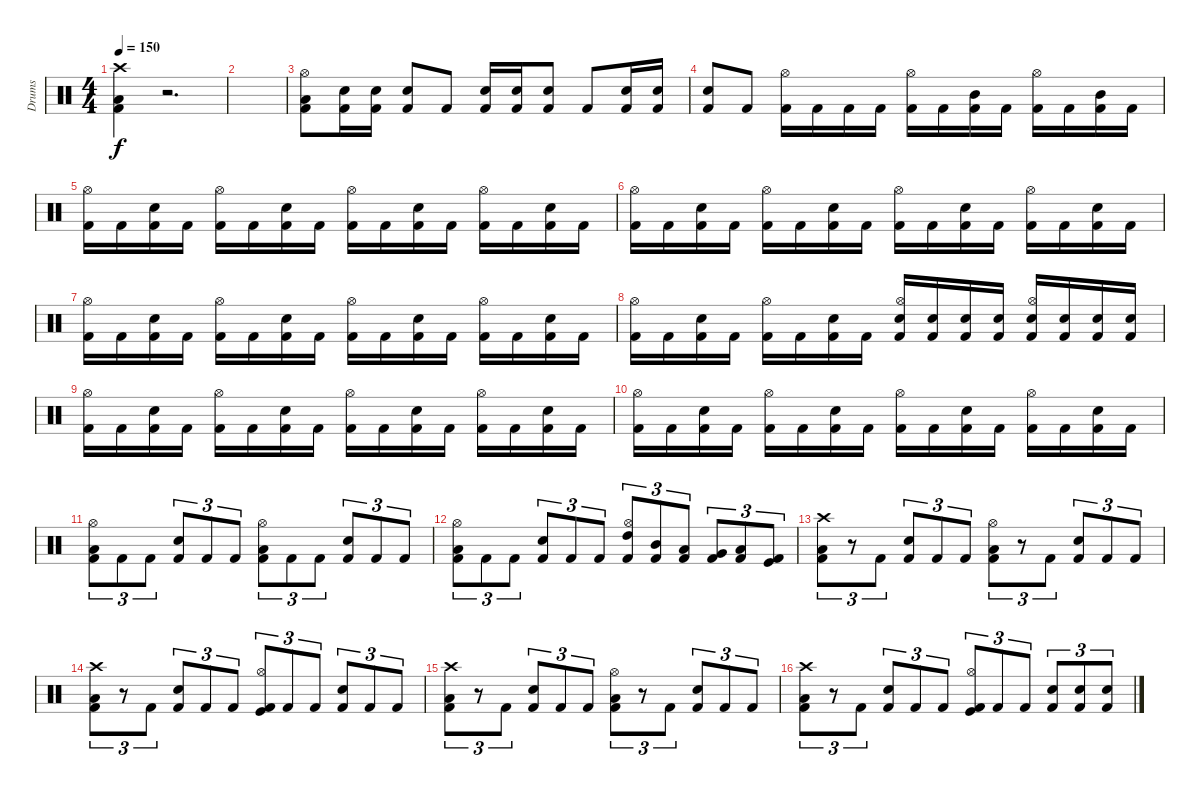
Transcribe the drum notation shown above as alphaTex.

\track ("Drums" "Drums") {instrument percussion}
\staff {score}
\articulation defaults
\ts (4 4)
\tempo 150
\clef neutral
\ks c
("Crash high (hit)" "Low Floor Tom (hit)" "Kick (hit) 2").4{dy f} r.2{d} |
|
("Hi-Hat (open)" "Low Floor Tom (hit)" "Kick (hit) 2").8 ("Snare (hit) 2" "Kick (hit) 2").16 ("Snare (hit) 2" "Kick (hit) 2").16 ("Snare (hit) 2" "Kick (hit) 2").8 "Kick (hit) 2".8 ("Snare (hit) 2" "Kick (hit) 2").16 ("Snare (hit) 2" "Kick (hit) 2").16 ("Snare (hit) 2" "Kick (hit) 2").8 "Kick (hit) 2".8 ("Snare (hit) 2" "Kick (hit) 2").16 ("Snare (hit) 2" "Kick (hit) 2").16 |
("Snare (hit) 2" "Kick (hit) 2").8 "Kick (hit) 2".8 ("Hi-Hat (open)" "Kick (hit) 2").16 "Kick (hit) 2".16 "Kick (hit) 2".16 "Kick (hit) 2".16 ("Hi-Hat (open)" "Kick (hit) 2").16 "Kick (hit) 2".16 ("Mid Tom (hit)" "Kick (hit) 2").16 "Kick (hit) 2".16 ("Hi-Hat (open)" "Kick (hit) 2").16 "Kick (hit) 2".16 ("Mid Tom (hit)" "Kick (hit) 2").16 "Kick (hit) 2".16 |
("Hi-Hat (open)" "Kick (hit) 2").16 "Kick (hit) 2".16 ("Electric Snare (hit)" "Kick (hit) 2").16 "Kick (hit) 2".16 ("Hi-Hat (open)" "Kick (hit) 2").16 "Kick (hit) 2".16 ("Electric Snare (hit)" "Kick (hit) 2").16 "Kick (hit) 2".16 ("Hi-Hat (open)" "Kick (hit) 2").16 "Kick (hit) 2".16 ("Electric Snare (hit)" "Kick (hit) 2").16 "Kick (hit) 2".16 ("Hi-Hat (open)" "Kick (hit) 2").16 "Kick (hit) 2".16 ("Electric Snare (hit)" "Kick (hit) 2").16 "Kick (hit) 2".16 |
("Hi-Hat (open)" "Kick (hit) 2").16 "Kick (hit) 2".16 ("Electric Snare (hit)" "Kick (hit) 2").16 "Kick (hit) 2".16 ("Hi-Hat (open)" "Kick (hit) 2").16 "Kick (hit) 2".16 ("Electric Snare (hit)" "Kick (hit) 2").16 "Kick (hit) 2".16 ("Hi-Hat (open)" "Kick (hit) 2").16 "Kick (hit) 2".16 ("Electric Snare (hit)" "Kick (hit) 2").16 "Kick (hit) 2".16 ("Hi-Hat (open)" "Kick (hit) 2").16 "Kick (hit) 2".16 ("Electric Snare (hit)" "Kick (hit) 2").16 "Kick (hit) 2".16 |
("Hi-Hat (open)" "Kick (hit) 2").16 "Kick (hit) 2".16 ("Electric Snare (hit)" "Kick (hit) 2").16 "Kick (hit) 2".16 ("Hi-Hat (open)" "Kick (hit) 2").16 "Kick (hit) 2".16 ("Electric Snare (hit)" "Kick (hit) 2").16 "Kick (hit) 2".16 ("Hi-Hat (open)" "Kick (hit) 2").16 "Kick (hit) 2".16 ("Electric Snare (hit)" "Kick (hit) 2").16 "Kick (hit) 2".16 ("Hi-Hat (open)" "Kick (hit) 2").16 "Kick (hit) 2".16 ("Electric Snare (hit)" "Kick (hit) 2").16 "Kick (hit) 2".16 |
("Hi-Hat (open)" "Kick (hit) 2").16 "Kick (hit) 2".16 ("Electric Snare (hit)" "Kick (hit) 2").16 "Kick (hit) 2".16 ("Hi-Hat (open)" "Kick (hit) 2").16 "Kick (hit) 2".16 ("Electric Snare (hit)" "Kick (hit) 2").16 "Kick (hit) 2".16 ("Hi-Hat (open)" "Snare (hit) 2" "Kick (hit) 2").16 ("Snare (hit) 2" "Kick (hit) 2").16 ("Snare (hit) 2" "Kick (hit) 2").16 ("Snare (hit) 2" "Kick (hit) 2").16 ("Hi-Hat (open)" "Snare (hit) 2" "Kick (hit) 2").16 ("Snare (hit) 2" "Kick (hit) 2").16 ("Snare (hit) 2" "Kick (hit) 2").16 ("Snare (hit) 2" "Kick (hit) 2").16 |
("Hi-Hat (open)" "Kick (hit) 2").16 "Kick (hit) 2".16 ("Electric Snare (hit)" "Kick (hit) 2").16 "Kick (hit) 2".16 ("Hi-Hat (open)" "Kick (hit) 2").16 "Kick (hit) 2".16 ("Electric Snare (hit)" "Kick (hit) 2").16 "Kick (hit) 2".16 ("Hi-Hat (open)" "Kick (hit) 2").16 "Kick (hit) 2".16 ("Electric Snare (hit)" "Kick (hit) 2").16 "Kick (hit) 2".16 ("Hi-Hat (open)" "Kick (hit) 2").16 "Kick (hit) 2".16 ("Electric Snare (hit)" "Kick (hit) 2").16 "Kick (hit) 2".16 |
("Hi-Hat (open)" "Kick (hit) 2").16 "Kick (hit) 2".16 ("Electric Snare (hit)" "Kick (hit) 2").16 "Kick (hit) 2".16 ("Hi-Hat (open)" "Kick (hit) 2").16 "Kick (hit) 2".16 ("Electric Snare (hit)" "Kick (hit) 2").16 "Kick (hit) 2".16 ("Hi-Hat (open)" "Kick (hit) 2").16 "Kick (hit) 2".16 ("Electric Snare (hit)" "Kick (hit) 2").16 "Kick (hit) 2".16 ("Hi-Hat (open)" "Kick (hit) 2").16 "Kick (hit) 2".16 ("Electric Snare (hit)" "Kick (hit) 2").16 "Kick (hit) 2".16 |
("Hi-Hat (open)" "Low Floor Tom (hit)" "Kick (hit) 2").8{tu (3 2)} "Kick (hit) 2".8{tu (3 2)} "Kick (hit) 2".8{tu (3 2)} ("Snare (hit) 2" "Kick (hit) 2").8{tu (3 2)} "Kick (hit) 2".8{tu (3 2)} "Kick (hit) 2".8{tu (3 2)} ("Hi-Hat (open)" "Low Floor Tom (hit)" "Kick (hit) 2").8{tu (3 2)} "Kick (hit) 2".8{tu (3 2)} "Kick (hit) 2".8{tu (3 2)} ("Snare (hit) 2" "Kick (hit) 2").8{tu (3 2)} "Kick (hit) 2".8{tu (3 2)} "Kick (hit) 2".8{tu (3 2)} |
("Hi-Hat (open)" "Low Floor Tom (hit)" "Kick (hit) 2").8{tu (3 2)} "Kick (hit) 2".8{tu (3 2)} "Kick (hit) 2".8{tu (3 2)} ("Snare (hit) 2" "Kick (hit) 2").8{tu (3 2)} "Kick (hit) 2".8{tu (3 2)} "Kick (hit) 2".8{tu (3 2)} ("Hi-Hat (open)" "High Tom (hit)" "Kick (hit) 2").8{tu (3 2)} ("Mid Tom (hit)" "Kick (hit) 2").8{tu (3 2)} ("Low Tom (hit)" "Kick (hit) 2").8{tu (3 2)} ("Very Low Tom (hit)" "Kick (hit) 2").8{tu (3 2)} ("Low Floor Tom (hit)" "Kick (hit) 2").8{tu (3 2)} ("Kick (hit)" "Kick (hit) 2").8{tu (3 2)} |
("Crash high (hit)" "Low Floor Tom (hit)" "Kick (hit) 2").8{tu (3 2)} r.8{tu (3 2)} "Kick (hit) 2".8{tu (3 2)} ("Snare (hit) 2" "Kick (hit) 2").8{tu (3 2)} "Kick (hit) 2".8{tu (3 2)} "Kick (hit) 2".8{tu (3 2)} ("Hi-Hat (open)" "Low Floor Tom (hit)" "Kick (hit) 2").8{tu (3 2)} r.8{tu (3 2)} "Kick (hit) 2".8{tu (3 2)} ("Snare (hit) 2" "Kick (hit) 2").8{tu (3 2)} "Kick (hit) 2".8{tu (3 2)} "Kick (hit) 2".8{tu (3 2)} |
("Crash high (hit)" "Low Floor Tom (hit)" "Kick (hit) 2").8{tu (3 2)} r.8{tu (3 2)} "Kick (hit) 2".8{tu (3 2)} ("Snare (hit) 2" "Kick (hit) 2").8{tu (3 2)} "Kick (hit) 2".8{tu (3 2)} "Kick (hit) 2".8{tu (3 2)} ("Hi-Hat (open)" "Kick (hit)" "Kick (hit) 2").8{tu (3 2)} "Kick (hit) 2".8{tu (3 2)} "Kick (hit) 2".8{tu (3 2)} ("Snare (hit) 2" "Kick (hit) 2").8{tu (3 2)} "Kick (hit) 2".8{tu (3 2)} "Kick (hit) 2".8{tu (3 2)} |
("Crash high (hit)" "Low Floor Tom (hit)" "Kick (hit) 2").8{tu (3 2)} r.8{tu (3 2)} "Kick (hit) 2".8{tu (3 2)} ("Snare (hit) 2" "Kick (hit) 2").8{tu (3 2)} "Kick (hit) 2".8{tu (3 2)} "Kick (hit) 2".8{tu (3 2)} ("Hi-Hat (open)" "Low Floor Tom (hit)" "Kick (hit) 2").8{tu (3 2)} r.8{tu (3 2)} "Kick (hit) 2".8{tu (3 2)} ("Snare (hit) 2" "Kick (hit) 2").8{tu (3 2)} "Kick (hit) 2".8{tu (3 2)} "Kick (hit) 2".8{tu (3 2)} |
("Crash high (hit)" "Low Floor Tom (hit)" "Kick (hit) 2").8{tu (3 2)} r.8{tu (3 2)} "Kick (hit) 2".8{tu (3 2)} ("Snare (hit) 2" "Kick (hit) 2").8{tu (3 2)} "Kick (hit) 2".8{tu (3 2)} "Kick (hit) 2".8{tu (3 2)} ("Hi-Hat (open)" "Kick (hit)" "Kick (hit) 2").8{tu (3 2)} "Kick (hit) 2".8{tu (3 2)} "Kick (hit) 2".8{tu (3 2)} ("Snare (hit) 2" "Kick (hit) 2").8{tu (3 2)} ("Snare (hit) 2" "Kick (hit) 2").8{tu (3 2)} ("Snare (hit) 2" "Kick (hit) 2").8{tu (3 2)}
